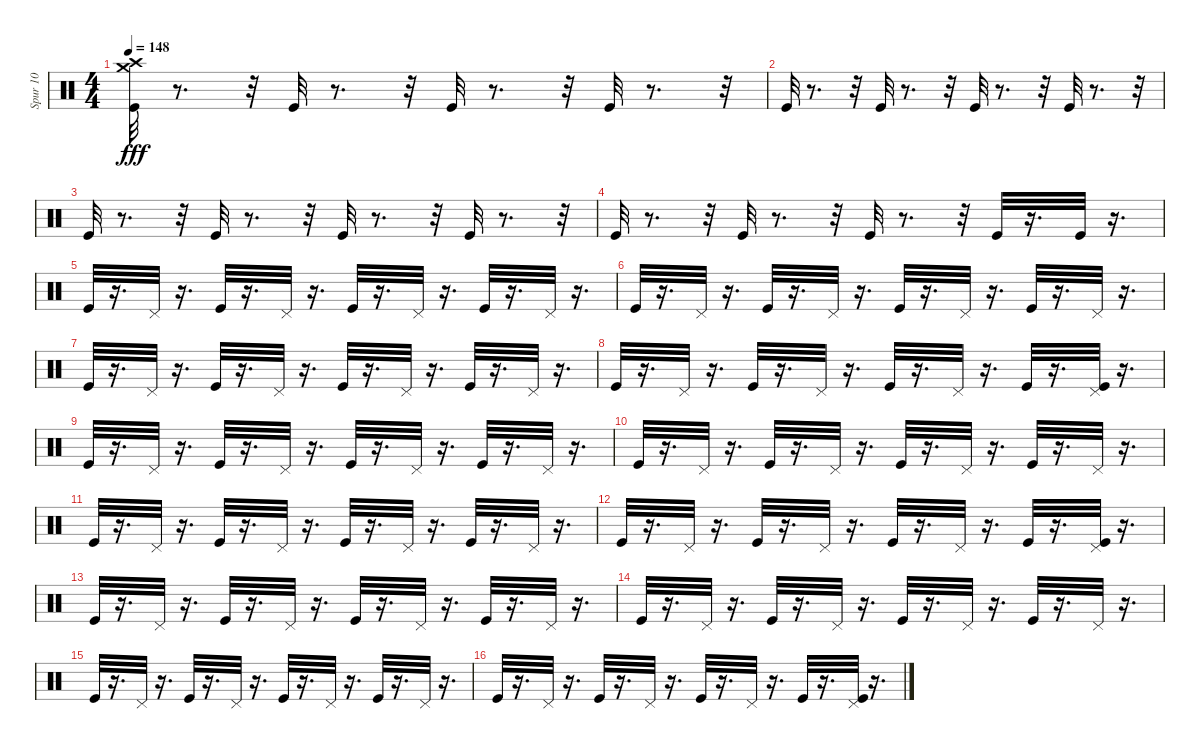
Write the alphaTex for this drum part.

\track ("Spur 10" "Spur 10") {instrument percussion}
\staff {score}
\articulation defaults
\ts (4 4)
\tempo 148
\clef neutral
\ks c
("Kick (hit)" "Crash high (hit)" "Crash medium (hit)").32{dy fff} r.8{d} r.32 "Kick (hit)".32 r.8{d} r.32 "Kick (hit)".32 r.8{d} r.32 "Kick (hit)".32 r.8{d} r.32 |
"Kick (hit)".32 r.8{d} r.32 "Kick (hit)".32 r.8{d} r.32 "Kick (hit)".32 r.8{d} r.32 "Kick (hit)".32 r.8{d} r.32 |
"Kick (hit)".32 r.8{d} r.32 "Kick (hit)".32 r.8{d} r.32 "Kick (hit)".32 r.8{d} r.32 "Kick (hit)".32 r.8{d} r.32 |
"Kick (hit)".32 r.8{d} r.32 "Kick (hit)".32 r.8{d} r.32 "Kick (hit)".32 r.8{d} r.32 "Kick (hit)".32 r.16{d} "Kick (hit)".32 r.16{d} |
"Kick (hit)".32 r.16{d} "Pedal Hi-Hat (hit)".32 r.16{d} "Kick (hit)".32 r.16{d} "Pedal Hi-Hat (hit)".32 r.16{d} "Kick (hit)".32 r.16{d} "Pedal Hi-Hat (hit)".32 r.16{d} "Kick (hit)".32 r.16{d} "Pedal Hi-Hat (hit)".32 r.16{d} |
"Kick (hit)".32 r.16{d} "Pedal Hi-Hat (hit)".32 r.16{d} "Kick (hit)".32 r.16{d} "Pedal Hi-Hat (hit)".32 r.16{d} "Kick (hit)".32 r.16{d} "Pedal Hi-Hat (hit)".32 r.16{d} "Kick (hit)".32 r.16{d} "Pedal Hi-Hat (hit)".32 r.16{d} |
"Kick (hit)".32 r.16{d} "Pedal Hi-Hat (hit)".32 r.16{d} "Kick (hit)".32 r.16{d} "Pedal Hi-Hat (hit)".32 r.16{d} "Kick (hit)".32 r.16{d} "Pedal Hi-Hat (hit)".32 r.16{d} "Kick (hit)".32 r.16{d} "Pedal Hi-Hat (hit)".32 r.16{d} |
"Kick (hit)".32 r.16{d} "Pedal Hi-Hat (hit)".32 r.16{d} "Kick (hit)".32 r.16{d} "Pedal Hi-Hat (hit)".32 r.16{d} "Kick (hit)".32 r.16{d} "Pedal Hi-Hat (hit)".32 r.16{d} "Kick (hit)".32 r.16{d} ("Kick (hit)" "Pedal Hi-Hat (hit)").32 r.16{d} |
"Kick (hit)".32 r.16{d} "Pedal Hi-Hat (hit)".32 r.16{d} "Kick (hit)".32 r.16{d} "Pedal Hi-Hat (hit)".32 r.16{d} "Kick (hit)".32 r.16{d} "Pedal Hi-Hat (hit)".32 r.16{d} "Kick (hit)".32 r.16{d} "Pedal Hi-Hat (hit)".32 r.16{d} |
"Kick (hit)".32 r.16{d} "Pedal Hi-Hat (hit)".32 r.16{d} "Kick (hit)".32 r.16{d} "Pedal Hi-Hat (hit)".32 r.16{d} "Kick (hit)".32 r.16{d} "Pedal Hi-Hat (hit)".32 r.16{d} "Kick (hit)".32 r.16{d} "Pedal Hi-Hat (hit)".32 r.16{d} |
"Kick (hit)".32 r.16{d} "Pedal Hi-Hat (hit)".32 r.16{d} "Kick (hit)".32 r.16{d} "Pedal Hi-Hat (hit)".32 r.16{d} "Kick (hit)".32 r.16{d} "Pedal Hi-Hat (hit)".32 r.16{d} "Kick (hit)".32 r.16{d} "Pedal Hi-Hat (hit)".32 r.16{d} |
"Kick (hit)".32 r.16{d} "Pedal Hi-Hat (hit)".32 r.16{d} "Kick (hit)".32 r.16{d} "Pedal Hi-Hat (hit)".32 r.16{d} "Kick (hit)".32 r.16{d} "Pedal Hi-Hat (hit)".32 r.16{d} "Kick (hit)".32 r.16{d} ("Kick (hit)" "Pedal Hi-Hat (hit)").32 r.16{d} |
"Kick (hit)".32 r.16{d} "Pedal Hi-Hat (hit)".32 r.16{d} "Kick (hit)".32 r.16{d} "Pedal Hi-Hat (hit)".32 r.16{d} "Kick (hit)".32 r.16{d} "Pedal Hi-Hat (hit)".32 r.16{d} "Kick (hit)".32 r.16{d} "Pedal Hi-Hat (hit)".32 r.16{d} |
"Kick (hit)".32 r.16{d} "Pedal Hi-Hat (hit)".32 r.16{d} "Kick (hit)".32 r.16{d} "Pedal Hi-Hat (hit)".32 r.16{d} "Kick (hit)".32 r.16{d} "Pedal Hi-Hat (hit)".32 r.16{d} "Kick (hit)".32 r.16{d} "Pedal Hi-Hat (hit)".32 r.16{d} |
"Kick (hit)".32 r.16{d} "Pedal Hi-Hat (hit)".32 r.16{d} "Kick (hit)".32 r.16{d} "Pedal Hi-Hat (hit)".32 r.16{d} "Kick (hit)".32 r.16{d} "Pedal Hi-Hat (hit)".32 r.16{d} "Kick (hit)".32 r.16{d} "Pedal Hi-Hat (hit)".32 r.16{d} |
"Kick (hit)".32 r.16{d} "Pedal Hi-Hat (hit)".32 r.16{d} "Kick (hit)".32 r.16{d} "Pedal Hi-Hat (hit)".32 r.16{d} "Kick (hit)".32 r.16{d} "Pedal Hi-Hat (hit)".32 r.16{d} "Kick (hit)".32 r.16{d} ("Kick (hit)" "Pedal Hi-Hat (hit)").32 r.16{d}
